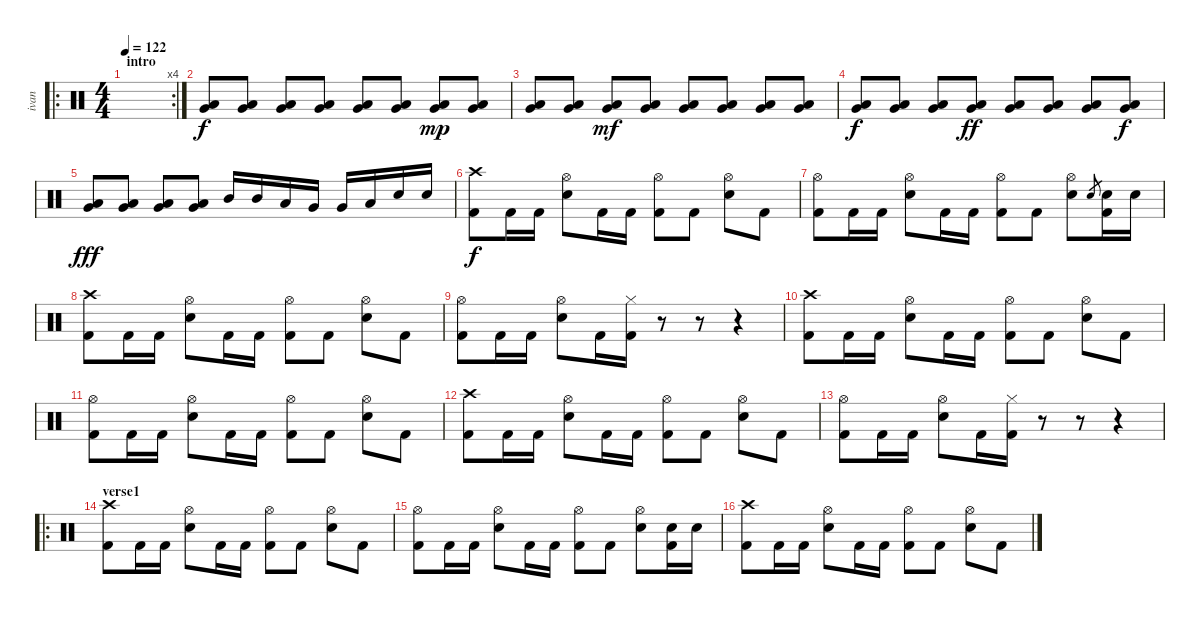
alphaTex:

\track ("ivan" "ivan") {instrument percussion}
\staff {score}
\articulation defaults
\ro
\rc 4
\ts (4 4)
\section ("" "intro")
\tempo 122
\clef neutral
\ks c
|
("Very Low Tom (hit)" "Low Floor Tom (hit)").8 ("Very Low Tom (hit)" "Low Floor Tom (hit)").8 ("Very Low Tom (hit)" "Low Floor Tom (hit)").8 ("Very Low Tom (hit)" "Low Floor Tom (hit)").8 ("Very Low Tom (hit)" "Low Floor Tom (hit)").8 ("Very Low Tom (hit)" "Low Floor Tom (hit)").8 ("Very Low Tom (hit)" "Low Floor Tom (hit)").8{dy mp} ("Very Low Tom (hit)" "Low Floor Tom (hit)").8 |
("Very Low Tom (hit)" "Low Floor Tom (hit)").8 ("Very Low Tom (hit)" "Low Floor Tom (hit)").8 ("Very Low Tom (hit)" "Low Floor Tom (hit)").8{dy mf} ("Very Low Tom (hit)" "Low Floor Tom (hit)").8 ("Very Low Tom (hit)" "Low Floor Tom (hit)").8 ("Very Low Tom (hit)" "Low Floor Tom (hit)").8 ("Very Low Tom (hit)" "Low Floor Tom (hit)").8 ("Very Low Tom (hit)" "Low Floor Tom (hit)").8 |
("Very Low Tom (hit)" "Low Floor Tom (hit)").8{dy f} ("Very Low Tom (hit)" "Low Floor Tom (hit)").8 ("Very Low Tom (hit)" "Low Floor Tom (hit)").8 ("Very Low Tom (hit)" "Low Floor Tom (hit)").8{dy ff} ("Very Low Tom (hit)" "Low Floor Tom (hit)").8 ("Very Low Tom (hit)" "Low Floor Tom (hit)").8 ("Very Low Tom (hit)" "Low Floor Tom (hit)").8 ("Very Low Tom (hit)" "Low Floor Tom (hit)").8{dy f} |
("Very Low Tom (hit)" "Low Floor Tom (hit)").8{dy fff} ("Very Low Tom (hit)" "Low Floor Tom (hit)").8 ("Very Low Tom (hit)" "Low Floor Tom (hit)").8 ("Very Low Tom (hit)" "Low Floor Tom (hit)").8 "Mid Tom (hit)".16 "Mid Tom (hit)".16 "Low Tom (hit)".16 "Very Low Tom (hit)".16 "Very Low Tom (hit)".16 "Low Floor Tom (hit)".16 "Electric Snare (hit)".16 "Electric Snare (hit)".16 |
("Crash high (hit)" "Kick (hit) 2").8{dy f} "Kick (hit) 2".16 "Kick (hit) 2".16 ("Hi-Hat (open)" "Electric Snare (hit)").8 "Kick (hit) 2".16 "Kick (hit) 2".16 ("Hi-Hat (open)" "Kick (hit) 2").8 "Kick (hit) 2".8 ("Hi-Hat (open)" "Electric Snare (hit)").8 "Kick (hit) 2".8 |
("Hi-Hat (open)" "Kick (hit) 2").8 "Kick (hit) 2".16 "Kick (hit) 2".16 ("Hi-Hat (open)" "Electric Snare (hit)").8 "Kick (hit) 2".16 "Kick (hit) 2".16 ("Hi-Hat (open)" "Kick (hit) 2").8 "Kick (hit) 2".8 ("Hi-Hat (open)" "Electric Snare (hit)").8 "Electric Snare (hit)".8{gr} ("Electric Snare (hit)" "Kick (hit) 2").16 "Electric Snare (hit)".16 |
("Crash high (hit)" "Kick (hit) 2").8 "Kick (hit) 2".16 "Kick (hit) 2".16 ("Hi-Hat (open)" "Electric Snare (hit)").8 "Kick (hit) 2".16 "Kick (hit) 2".16 ("Hi-Hat (open)" "Kick (hit) 2").8 "Kick (hit) 2".8 ("Hi-Hat (open)" "Electric Snare (hit)").8 "Kick (hit) 2".8 |
("Hi-Hat (open)" "Kick (hit) 2").8 "Kick (hit) 2".16 "Kick (hit) 2".16 ("Hi-Hat (open)" "Electric Snare (hit)").8 "Kick (hit) 2".16 ("Hi-Hat (closed)" "Kick (hit) 2").16 r.8 r.8 r.4 |
("Crash high (hit)" "Kick (hit) 2").8 "Kick (hit) 2".16 "Kick (hit) 2".16 ("Hi-Hat (open)" "Electric Snare (hit)").8 "Kick (hit) 2".16 "Kick (hit) 2".16 ("Hi-Hat (open)" "Kick (hit) 2").8 "Kick (hit) 2".8 ("Hi-Hat (open)" "Electric Snare (hit)").8 "Kick (hit) 2".8 |
("Hi-Hat (open)" "Kick (hit) 2").8 "Kick (hit) 2".16 "Kick (hit) 2".16 ("Hi-Hat (open)" "Electric Snare (hit)").8 "Kick (hit) 2".16 "Kick (hit) 2".16 ("Hi-Hat (open)" "Kick (hit) 2").8 "Kick (hit) 2".8 ("Hi-Hat (open)" "Electric Snare (hit)").8 "Kick (hit) 2".8 |
("Crash high (hit)" "Kick (hit) 2").8 "Kick (hit) 2".16 "Kick (hit) 2".16 ("Hi-Hat (open)" "Electric Snare (hit)").8 "Kick (hit) 2".16 "Kick (hit) 2".16 ("Hi-Hat (open)" "Kick (hit) 2").8 "Kick (hit) 2".8 ("Hi-Hat (open)" "Electric Snare (hit)").8 "Kick (hit) 2".8 |
("Hi-Hat (open)" "Kick (hit) 2").8 "Kick (hit) 2".16 "Kick (hit) 2".16 ("Hi-Hat (open)" "Electric Snare (hit)").8 "Kick (hit) 2".16 ("Hi-Hat (closed)" "Kick (hit) 2").16 r.8 r.8 r.4 |
\ro
\section ("" "verse1")
("Crash high (hit)" "Kick (hit) 2").8 "Kick (hit) 2".16 "Kick (hit) 2".16 ("Hi-Hat (open)" "Electric Snare (hit)").8 "Kick (hit) 2".16 "Kick (hit) 2".16 ("Hi-Hat (open)" "Kick (hit) 2").8 "Kick (hit) 2".8 ("Hi-Hat (open)" "Electric Snare (hit)").8 "Kick (hit) 2".8 |
("Hi-Hat (open)" "Kick (hit) 2").8 "Kick (hit) 2".16 "Kick (hit) 2".16 ("Hi-Hat (open)" "Electric Snare (hit)").8 "Kick (hit) 2".16 "Kick (hit) 2".16 ("Hi-Hat (open)" "Kick (hit) 2").8 "Kick (hit) 2".8 ("Hi-Hat (open)" "Electric Snare (hit)").8 ("Electric Snare (hit)" "Kick (hit) 2").16 "Electric Snare (hit)".16 |
("Crash high (hit)" "Kick (hit) 2").8 "Kick (hit) 2".16 "Kick (hit) 2".16 ("Hi-Hat (open)" "Electric Snare (hit)").8 "Kick (hit) 2".16 "Kick (hit) 2".16 ("Hi-Hat (open)" "Kick (hit) 2").8 "Kick (hit) 2".8 ("Hi-Hat (open)" "Electric Snare (hit)").8 "Kick (hit) 2".8
